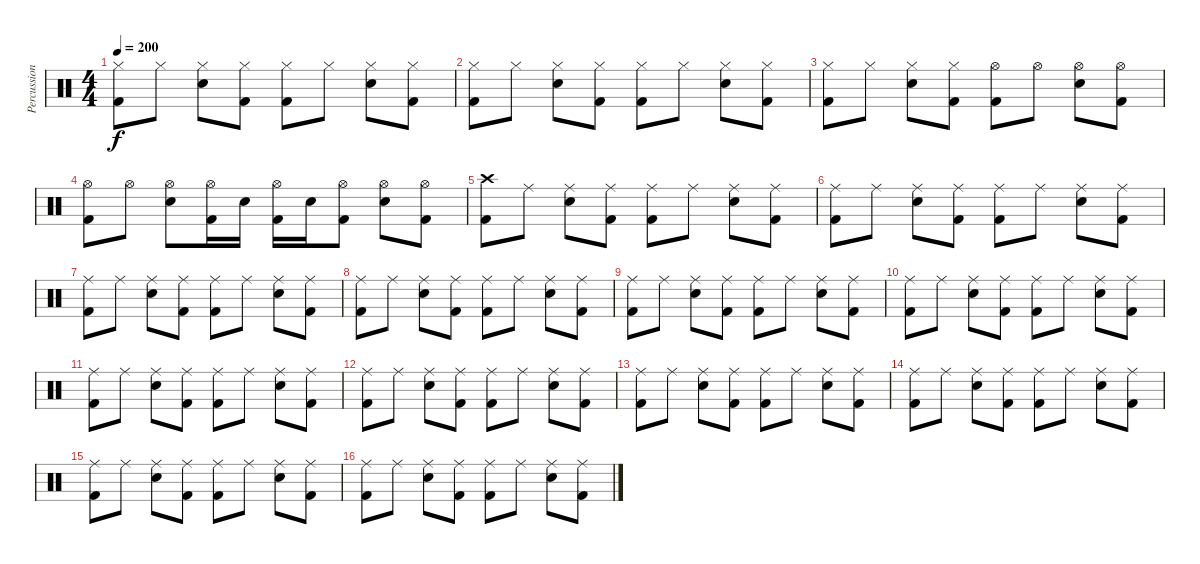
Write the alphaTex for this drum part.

\track ("Percussion" "Percussion") {instrument percussion}
\staff {score}
\articulation defaults
\ts (4 4)
\tempo 200
\clef neutral
\ks c
("Hi-Hat (closed)" "Kick (hit) 2").8{dy f} "Hi-Hat (closed)".8 ("Hi-Hat (closed)" "Snare (hit) 2").8 ("Hi-Hat (closed)" "Kick (hit) 2").8 ("Hi-Hat (closed)" "Kick (hit) 2").8 "Hi-Hat (closed)".8 ("Hi-Hat (closed)" "Snare (hit) 2").8 ("Hi-Hat (closed)" "Kick (hit) 2").8 |
("Hi-Hat (closed)" "Kick (hit) 2").8 "Hi-Hat (closed)".8 ("Hi-Hat (closed)" "Snare (hit) 2").8 ("Hi-Hat (closed)" "Kick (hit) 2").8 ("Hi-Hat (closed)" "Kick (hit) 2").8 "Hi-Hat (closed)".8 ("Hi-Hat (closed)" "Snare (hit) 2").8 ("Hi-Hat (closed)" "Kick (hit) 2").8 |
("Hi-Hat (closed)" "Kick (hit) 2").8 "Hi-Hat (closed)".8 ("Hi-Hat (closed)" "Snare (hit) 2").8 ("Hi-Hat (closed)" "Kick (hit) 2").8 ("Hi-Hat (open)" "Kick (hit) 2").8 "Hi-Hat (open)".8 ("Hi-Hat (open)" "Snare (hit) 2").8 ("Hi-Hat (open)" "Kick (hit) 2").8 |
("Hi-Hat (open)" "Kick (hit) 2").8 "Hi-Hat (open)".8 ("Hi-Hat (open)" "Snare (hit) 2").8 ("Hi-Hat (open)" "Kick (hit) 2").16 "Snare (hit) 2".16 ("Hi-Hat (open)" "Kick (hit) 2").16 "Snare (hit) 2".16 ("Hi-Hat (open)" "Kick (hit) 2").8 ("Hi-Hat (open)" "Snare (hit) 2").8 ("Hi-Hat (open)" "Kick (hit) 2").8 |
("Crash high (hit)" "Kick (hit) 2").8 "Ride (middle)".8 ("Ride (middle)" "Snare (hit) 2").8 ("Ride (middle)" "Kick (hit) 2").8 ("Ride (middle)" "Kick (hit) 2").8 "Ride (middle)".8 ("Ride (middle)" "Snare (hit) 2").8 ("Ride (middle)" "Kick (hit) 2").8 |
("Ride (middle)" "Kick (hit) 2").8 "Ride (middle)".8 ("Ride (middle)" "Snare (hit) 2").8 ("Ride (middle)" "Kick (hit) 2").8 ("Ride (middle)" "Kick (hit) 2").8 "Ride (middle)".8 ("Ride (middle)" "Snare (hit) 2").8 ("Ride (middle)" "Kick (hit) 2").8 |
("Ride (middle)" "Kick (hit) 2").8 "Ride (middle)".8 ("Ride (middle)" "Snare (hit) 2").8 ("Ride (middle)" "Kick (hit) 2").8 ("Ride (middle)" "Kick (hit) 2").8 "Ride (middle)".8 ("Ride (middle)" "Snare (hit) 2").8 ("Ride (middle)" "Kick (hit) 2").8 |
("Ride (middle)" "Kick (hit) 2").8 "Ride (middle)".8 ("Ride (middle)" "Snare (hit) 2").8 ("Ride (middle)" "Kick (hit) 2").8 ("Ride (middle)" "Kick (hit) 2").8 "Ride (middle)".8 ("Ride (middle)" "Snare (hit) 2").8 ("Ride (middle)" "Kick (hit) 2").8 |
("Ride (middle)" "Kick (hit) 2").8 "Ride (middle)".8 ("Ride (middle)" "Snare (hit) 2").8 ("Ride (middle)" "Kick (hit) 2").8 ("Ride (middle)" "Kick (hit) 2").8 "Ride (middle)".8 ("Ride (middle)" "Snare (hit) 2").8 ("Ride (middle)" "Kick (hit) 2").8 |
("Ride (middle)" "Kick (hit) 2").8 "Ride (middle)".8 ("Ride (middle)" "Snare (hit) 2").8 ("Ride (middle)" "Kick (hit) 2").8 ("Ride (middle)" "Kick (hit) 2").8 "Ride (middle)".8 ("Ride (middle)" "Snare (hit) 2").8 ("Ride (middle)" "Kick (hit) 2").8 |
("Ride (middle)" "Kick (hit) 2").8 "Ride (middle)".8 ("Ride (middle)" "Snare (hit) 2").8 ("Ride (middle)" "Kick (hit) 2").8 ("Ride (middle)" "Kick (hit) 2").8 "Ride (middle)".8 ("Ride (middle)" "Snare (hit) 2").8 ("Ride (middle)" "Kick (hit) 2").8 |
("Ride (middle)" "Kick (hit) 2").8 "Ride (middle)".8 ("Ride (middle)" "Snare (hit) 2").8 ("Ride (middle)" "Kick (hit) 2").8 ("Ride (middle)" "Kick (hit) 2").8 "Ride (middle)".8 ("Ride (middle)" "Snare (hit) 2").8 ("Ride (middle)" "Kick (hit) 2").8 |
("Ride (middle)" "Kick (hit) 2").8 "Ride (middle)".8 ("Ride (middle)" "Snare (hit) 2").8 ("Ride (middle)" "Kick (hit) 2").8 ("Ride (middle)" "Kick (hit) 2").8 "Ride (middle)".8 ("Ride (middle)" "Snare (hit) 2").8 ("Ride (middle)" "Kick (hit) 2").8 |
("Ride (middle)" "Kick (hit) 2").8 "Ride (middle)".8 ("Ride (middle)" "Snare (hit) 2").8 ("Ride (middle)" "Kick (hit) 2").8 ("Ride (middle)" "Kick (hit) 2").8 "Ride (middle)".8 ("Ride (middle)" "Snare (hit) 2").8 ("Ride (middle)" "Kick (hit) 2").8 |
("Ride (middle)" "Kick (hit) 2").8 "Ride (middle)".8 ("Ride (middle)" "Snare (hit) 2").8 ("Ride (middle)" "Kick (hit) 2").8 ("Ride (middle)" "Kick (hit) 2").8 "Ride (middle)".8 ("Ride (middle)" "Snare (hit) 2").8 ("Ride (middle)" "Kick (hit) 2").8 |
("Ride (middle)" "Kick (hit) 2").8 "Ride (middle)".8 ("Ride (middle)" "Snare (hit) 2").8 ("Ride (middle)" "Kick (hit) 2").8 ("Ride (middle)" "Kick (hit) 2").8 "Ride (middle)".8 ("Ride (middle)" "Snare (hit) 2").8 ("Ride (middle)" "Kick (hit) 2").8
